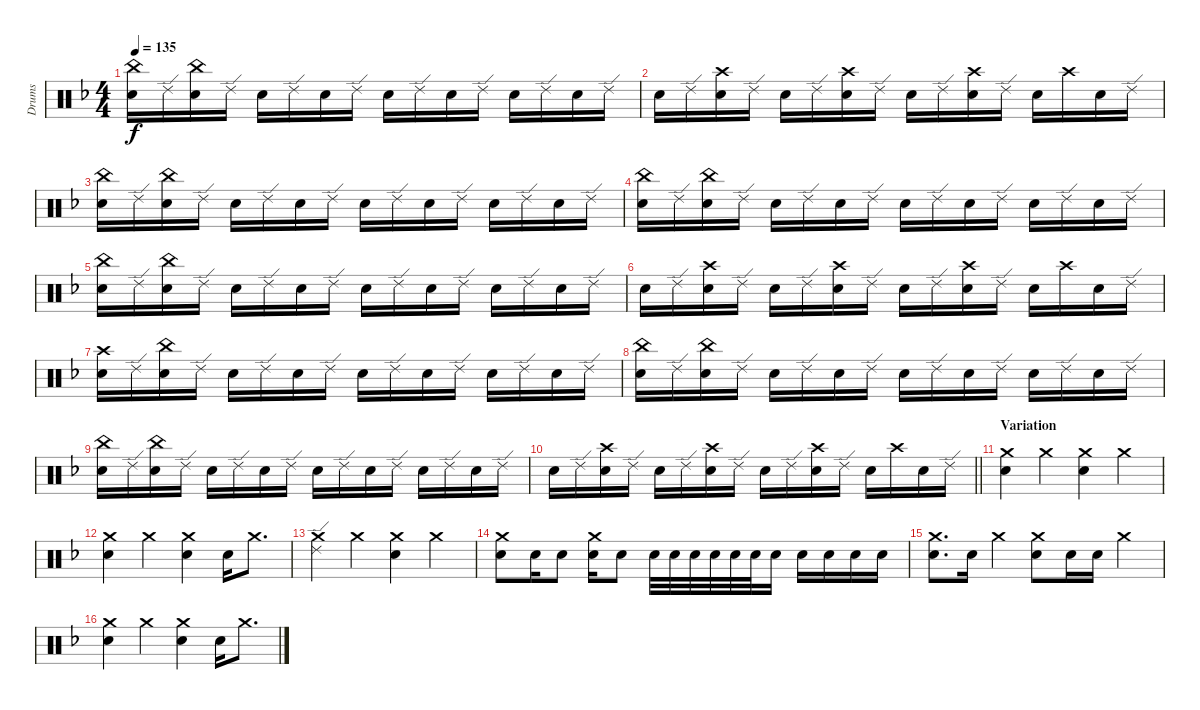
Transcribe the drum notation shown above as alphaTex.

\track ("Drums" "Drums") {instrument percussion}
\staff {score}
\articulation defaults
\ts (4 4)
\tempo 135
\clef neutral
\ks dminor
("China (hit)" "Snare (hit) 2").16{dy f} "Ride (edge) 2".16 ("China (hit)" "Snare (hit) 2").16 "Ride (edge) 2".16 "Snare (hit) 2".16 "Ride (edge) 2".16 "Snare (hit) 2".16 "Ride (edge) 2".16 "Snare (hit) 2".16 "Ride (edge) 2".16 "Snare (hit) 2".16 "Ride (edge) 2".16 "Snare (hit) 2".16 "Ride (edge) 2".16 "Snare (hit) 2".16 "Ride (edge) 2".16 |
"Snare (hit) 2".16 "Ride (edge) 2".16 ("Crash high (hit)" "Snare (hit) 2").16 "Ride (edge) 2".16 "Snare (hit) 2".16 "Ride (edge) 2".16 ("Crash high (hit)" "Snare (hit) 2").16 "Ride (edge) 2".16 "Snare (hit) 2".16 "Ride (edge) 2".16 ("Crash high (hit)" "Snare (hit) 2").16 "Ride (edge) 2".16 "Snare (hit) 2".16 "Crash high (hit)".16 "Snare (hit) 2".16 "Ride (edge) 2".16 |
("China (hit)" "Snare (hit) 2").16 "Ride (edge) 2".16 ("China (hit)" "Snare (hit) 2").16 "Ride (edge) 2".16 "Snare (hit) 2".16 "Ride (edge) 2".16 "Snare (hit) 2".16 "Ride (edge) 2".16 "Snare (hit) 2".16 "Ride (edge) 2".16 "Snare (hit) 2".16 "Ride (edge) 2".16 "Snare (hit) 2".16 "Ride (edge) 2".16 "Snare (hit) 2".16 "Ride (edge) 2".16 |
("China (hit)" "Snare (hit) 2").16 "Ride (edge) 2".16 ("China (hit)" "Snare (hit) 2").16 "Ride (edge) 2".16 "Snare (hit) 2".16 "Ride (edge) 2".16 "Snare (hit) 2".16 "Ride (edge) 2".16 "Snare (hit) 2".16 "Ride (edge) 2".16 "Snare (hit) 2".16 "Ride (edge) 2".16 "Snare (hit) 2".16 "Ride (edge) 2".16 "Snare (hit) 2".16 "Ride (edge) 2".16 |
("China (hit)" "Snare (hit) 2").16 "Ride (edge) 2".16 ("China (hit)" "Snare (hit) 2").16 "Ride (edge) 2".16 "Snare (hit) 2".16 "Ride (edge) 2".16 "Snare (hit) 2".16 "Ride (edge) 2".16 "Snare (hit) 2".16 "Ride (edge) 2".16 "Snare (hit) 2".16 "Ride (edge) 2".16 "Snare (hit) 2".16 "Ride (edge) 2".16 "Snare (hit) 2".16 "Ride (edge) 2".16 |
"Snare (hit) 2".16 "Ride (edge) 2".16 ("Crash high (hit)" "Snare (hit) 2").16 "Ride (edge) 2".16 "Snare (hit) 2".16 "Ride (edge) 2".16 ("Crash high (hit)" "Snare (hit) 2").16 "Ride (edge) 2".16 "Snare (hit) 2".16 "Ride (edge) 2".16 ("Crash high (hit)" "Snare (hit) 2").16 "Ride (edge) 2".16 "Snare (hit) 2".16 "Crash high (hit)".16 "Snare (hit) 2".16 "Ride (edge) 2".16 |
("Crash high (hit)" "Snare (hit) 2").16 "Ride (edge) 2".16 ("China (hit)" "Snare (hit) 2").16 "Ride (edge) 2".16 "Snare (hit) 2".16 "Ride (edge) 2".16 "Snare (hit) 2".16 "Ride (edge) 2".16 "Snare (hit) 2".16 "Ride (edge) 2".16 "Snare (hit) 2".16 "Ride (edge) 2".16 "Snare (hit) 2".16 "Ride (edge) 2".16 "Snare (hit) 2".16 "Ride (edge) 2".16 |
("China (hit)" "Snare (hit) 2").16 "Ride (edge) 2".16 ("China (hit)" "Snare (hit) 2").16 "Ride (edge) 2".16 "Snare (hit) 2".16 "Ride (edge) 2".16 "Snare (hit) 2".16 "Ride (edge) 2".16 "Snare (hit) 2".16 "Ride (edge) 2".16 "Snare (hit) 2".16 "Ride (edge) 2".16 "Snare (hit) 2".16 "Ride (edge) 2".16 "Snare (hit) 2".16 "Ride (edge) 2".16 |
("China (hit)" "Snare (hit) 2").16 "Ride (edge) 2".16 ("China (hit)" "Snare (hit) 2").16 "Ride (edge) 2".16 "Snare (hit) 2".16 "Ride (edge) 2".16 "Snare (hit) 2".16 "Ride (edge) 2".16 "Snare (hit) 2".16 "Ride (edge) 2".16 "Snare (hit) 2".16 "Ride (edge) 2".16 "Snare (hit) 2".16 "Ride (edge) 2".16 "Snare (hit) 2".16 "Ride (edge) 2".16 |
\barLineRight lightlight "Snare (hit) 2".16 "Ride (edge) 2".16
("Crash high (hit)" "Snare (hit) 2").16 "Ride (edge) 2".16 "Snare (hit) 2".16 "Ride (edge) 2".16 ("Crash high (hit)" "Snare (hit) 2").16 "Ride (edge) 2".16 "Snare (hit) 2".16 "Ride (edge) 2".16 ("Crash high (hit)" "Snare (hit) 2").16 "Ride (edge) 2".16 "Snare (hit) 2".16 "Crash high (hit)".16 "Snare (hit) 2".16 "Ride (edge) 2".16 |
\section ("" "Variation")
("Crash medium (hit)" "Snare (hit) 2").4 "Crash medium (hit)".4 ("Crash medium (hit)" "Snare (hit) 2").4 "Crash medium (hit)".4 |
("Crash medium (hit)" "Snare (hit) 2").4 "Crash medium (hit)".4 ("Crash medium (hit)" "Snare (hit) 2").4 "Snare (hit) 2".16 "Crash medium (hit)".8{d} |
("Ride (edge) 2" "Crash medium (hit)").4 "Crash medium (hit)".4 ("Crash medium (hit)" "Snare (hit) 2").4 "Crash medium (hit)".4 |
("Crash medium (hit)" "Snare (hit) 2").8 "Snare (hit) 2".16 "Snare (hit) 2".8 ("Crash medium (hit)" "Snare (hit) 2").16 "Snare (hit) 2".8 "Snare (hit) 2".32 "Snare (hit) 2".32 "Snare (hit) 2".32 "Snare (hit) 2".32 "Snare (hit) 2".32 "Snare (hit) 2".32 "Snare (hit) 2".16 "Snare (hit) 2".16 "Snare (hit) 2".16 "Snare (hit) 2".16 "Snare (hit) 2".16 |
("Crash medium (hit)" "Snare (hit) 2").8{d} "Snare (hit) 2".16 "Crash medium (hit)".4 ("Crash medium (hit)" "Snare (hit) 2").8 "Snare (hit) 2".16 "Snare (hit) 2".16 "Crash medium (hit)".4 |
("Crash medium (hit)" "Snare (hit) 2").4 "Crash medium (hit)".4 ("Crash medium (hit)" "Snare (hit) 2").4 "Snare (hit) 2".16 "Crash medium (hit)".8{d}
